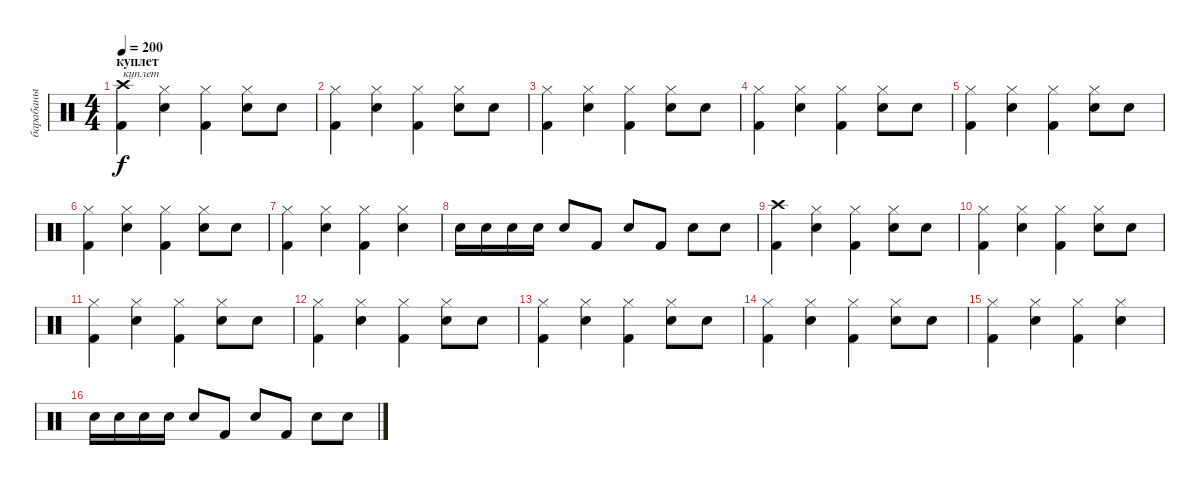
\track ("барабаны" "барабаны") {instrument percussion}
\staff {score}
\articulation defaults
\ts (4 4)
\section ("" "куплет")
\tempo 200
\clef neutral
\ks c
("Crash high (hit)" "Kick (hit) 2").4{txt "куплет" dy f} ("Hi-Hat (closed)" "Snare (hit) 2").4 ("Hi-Hat (closed)" "Kick (hit) 2").4 ("Hi-Hat (closed)" "Snare (hit) 2").8 "Snare (hit) 2".8 |
("Hi-Hat (closed)" "Kick (hit) 2").4 ("Hi-Hat (closed)" "Snare (hit) 2").4 ("Hi-Hat (closed)" "Kick (hit) 2").4 ("Hi-Hat (closed)" "Snare (hit) 2").8 "Snare (hit) 2".8 |
("Hi-Hat (closed)" "Kick (hit) 2").4 ("Hi-Hat (closed)" "Snare (hit) 2").4 ("Hi-Hat (closed)" "Kick (hit) 2").4 ("Hi-Hat (closed)" "Snare (hit) 2").8 "Snare (hit) 2".8 |
("Hi-Hat (closed)" "Kick (hit) 2").4 ("Hi-Hat (closed)" "Snare (hit) 2").4 ("Hi-Hat (closed)" "Kick (hit) 2").4 ("Hi-Hat (closed)" "Snare (hit) 2").8 "Snare (hit) 2".8 |
("Hi-Hat (closed)" "Kick (hit) 2").4 ("Hi-Hat (closed)" "Snare (hit) 2").4 ("Hi-Hat (closed)" "Kick (hit) 2").4 ("Hi-Hat (closed)" "Snare (hit) 2").8 "Snare (hit) 2".8 |
("Hi-Hat (closed)" "Kick (hit) 2").4 ("Hi-Hat (closed)" "Snare (hit) 2").4 ("Hi-Hat (closed)" "Kick (hit) 2").4 ("Hi-Hat (closed)" "Snare (hit) 2").8 "Snare (hit) 2".8 |
("Hi-Hat (closed)" "Kick (hit) 2").4 ("Hi-Hat (closed)" "Snare (hit) 2").4 ("Hi-Hat (closed)" "Kick (hit) 2").4 ("Hi-Hat (closed)" "Snare (hit) 2").4 |
"Snare (hit) 2".16 "Snare (hit) 2".16 "Snare (hit) 2".16 "Snare (hit) 2".16 "Snare (hit) 2".8 "Kick (hit) 2".8 "Snare (hit) 2".8 "Kick (hit) 2".8 "Snare (hit) 2".8 "Snare (hit) 2".8 |
("Crash high (hit)" "Kick (hit) 2").4 ("Hi-Hat (closed)" "Snare (hit) 2").4 ("Hi-Hat (closed)" "Kick (hit) 2").4 ("Hi-Hat (closed)" "Snare (hit) 2").8 "Snare (hit) 2".8 |
("Hi-Hat (closed)" "Kick (hit) 2").4 ("Hi-Hat (closed)" "Snare (hit) 2").4 ("Hi-Hat (closed)" "Kick (hit) 2").4 ("Hi-Hat (closed)" "Snare (hit) 2").8 "Snare (hit) 2".8 |
("Hi-Hat (closed)" "Kick (hit) 2").4 ("Hi-Hat (closed)" "Snare (hit) 2").4 ("Hi-Hat (closed)" "Kick (hit) 2").4 ("Hi-Hat (closed)" "Snare (hit) 2").8 "Snare (hit) 2".8 |
("Hi-Hat (closed)" "Kick (hit) 2").4 ("Hi-Hat (closed)" "Snare (hit) 2").4 ("Hi-Hat (closed)" "Kick (hit) 2").4 ("Hi-Hat (closed)" "Snare (hit) 2").8 "Snare (hit) 2".8 |
("Hi-Hat (closed)" "Kick (hit) 2").4 ("Hi-Hat (closed)" "Snare (hit) 2").4 ("Hi-Hat (closed)" "Kick (hit) 2").4 ("Hi-Hat (closed)" "Snare (hit) 2").8 "Snare (hit) 2".8 |
("Hi-Hat (closed)" "Kick (hit) 2").4 ("Hi-Hat (closed)" "Snare (hit) 2").4 ("Hi-Hat (closed)" "Kick (hit) 2").4 ("Hi-Hat (closed)" "Snare (hit) 2").8 "Snare (hit) 2".8 |
("Hi-Hat (closed)" "Kick (hit) 2").4 ("Hi-Hat (closed)" "Snare (hit) 2").4 ("Hi-Hat (closed)" "Kick (hit) 2").4 ("Hi-Hat (closed)" "Snare (hit) 2").4 |
"Snare (hit) 2".16 "Snare (hit) 2".16 "Snare (hit) 2".16 "Snare (hit) 2".16 "Snare (hit) 2".8 "Kick (hit) 2".8 "Snare (hit) 2".8 "Kick (hit) 2".8 "Snare (hit) 2".8 "Snare (hit) 2".8
